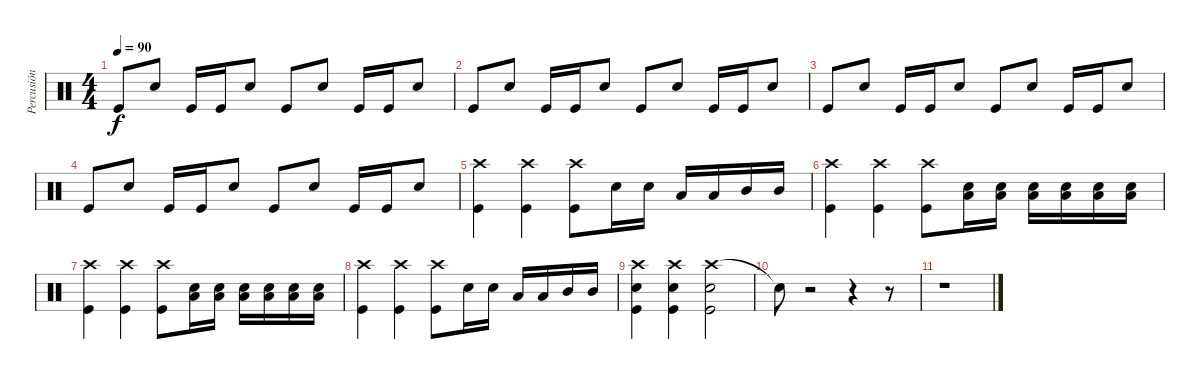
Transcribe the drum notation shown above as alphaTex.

\track ("Percusión" "Percusión") {instrument percussion}
\staff {score}
\articulation defaults
\ts (4 4)
\tempo 90
\clef neutral
\ks c "Kick (hit)".8{dy f} "Electric Snare (hit)".8 "Kick (hit)".16 "Kick (hit)".16 "Electric Snare (hit)".8 "Kick (hit)".8 "Electric Snare (hit)".8 "Kick (hit)".16 "Kick (hit)".16 "Electric Snare (hit)".8
|
"Kick (hit)".8 "Electric Snare (hit)".8 "Kick (hit)".16 "Kick (hit)".16 "Electric Snare (hit)".8 "Kick (hit)".8 "Electric Snare (hit)".8 "Kick (hit)".16 "Kick (hit)".16 "Electric Snare (hit)".8 |
"Kick (hit)".8 "Electric Snare (hit)".8 "Kick (hit)".16 "Kick (hit)".16 "Electric Snare (hit)".8 "Kick (hit)".8 "Electric Snare (hit)".8 "Kick (hit)".16 "Kick (hit)".16 "Electric Snare (hit)".8 |
"Kick (hit)".8 "Electric Snare (hit)".8 "Kick (hit)".16 "Kick (hit)".16 "Electric Snare (hit)".8 "Kick (hit)".8 "Electric Snare (hit)".8 "Kick (hit)".16 "Kick (hit)".16 "Electric Snare (hit)".8 |
("Crash high (hit)" "Kick (hit)").4 ("Crash high (hit)" "Kick (hit)").4 ("Crash high (hit)" "Kick (hit)").8 "Electric Snare (hit)".16 "Electric Snare (hit)".16 "Low Tom (hit)".16 "Low Tom (hit)".16 "Mid Tom (hit)".16 "Mid Tom (hit)".16 |
("Crash high (hit)" "Kick (hit)").4 ("Crash high (hit)" "Kick (hit)").4 ("Crash high (hit)" "Kick (hit)").8 ("Low Floor Tom (hit)" "Electric Snare (hit)").16 ("Low Floor Tom (hit)" "Electric Snare (hit)").16 ("Low Floor Tom (hit)" "Electric Snare (hit)").16 ("Low Floor Tom (hit)" "Electric Snare (hit)").16 ("Low Floor Tom (hit)" "Electric Snare (hit)").16 ("Low Floor Tom (hit)" "Electric Snare (hit)").16 |
("Crash high (hit)" "Kick (hit)").4 ("Crash high (hit)" "Kick (hit)").4 ("Crash high (hit)" "Kick (hit)").8 ("Low Floor Tom (hit)" "Electric Snare (hit)").16 ("Low Floor Tom (hit)" "Electric Snare (hit)").16 ("Low Floor Tom (hit)" "Electric Snare (hit)").16 ("Low Floor Tom (hit)" "Electric Snare (hit)").16 ("Low Floor Tom (hit)" "Electric Snare (hit)").16 ("Low Floor Tom (hit)" "Electric Snare (hit)").16 |
("Crash high (hit)" "Kick (hit)").4 ("Crash high (hit)" "Kick (hit)").4 ("Crash high (hit)" "Kick (hit)").8 "Electric Snare (hit)".16 "Electric Snare (hit)".16 "Low Tom (hit)".16 "Low Tom (hit)".16 "Mid Tom (hit)".16 "Mid Tom (hit)".16 |
("Crash high (hit)" "Electric Snare (hit)" "Kick (hit)").4 ("Crash high (hit)" "Electric Snare (hit)" "Kick (hit)").4 ("Crash high (hit)" "Electric Snare (hit)" "Kick (hit)").2 |
"Snare (hit)"{t}.8 r.2 r.4 r.8 |
r.1
